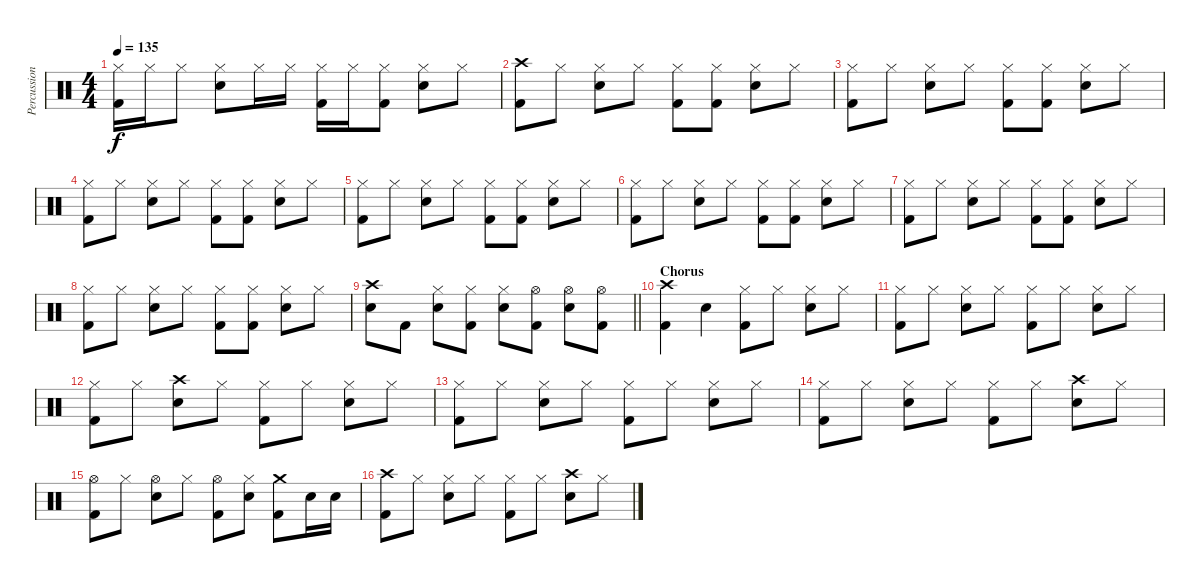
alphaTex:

\track ("Percussion" "Percussion") {instrument percussion}
\staff {score}
\articulation defaults
\ts (4 4)
\tempo 135
\clef neutral
\ks c
("Hi-Hat (closed)" "Kick (hit) 2").16{dy f} "Hi-Hat (closed)".16 "Hi-Hat (closed)".8 ("Hi-Hat (closed)" "Electric Snare (hit)").8 "Hi-Hat (closed)".16 "Hi-Hat (closed)".16 ("Hi-Hat (closed)" "Kick (hit) 2").16 "Hi-Hat (closed)".16 ("Hi-Hat (closed)" "Kick (hit) 2").8 ("Hi-Hat (closed)" "Electric Snare (hit)").8 "Hi-Hat (closed)".8 |
("Crash high (hit)" "Kick (hit) 2").8 "Hi-Hat (closed)".8 ("Hi-Hat (closed)" "Electric Snare (hit)").8 "Hi-Hat (closed)".8 ("Hi-Hat (closed)" "Kick (hit) 2").8 ("Hi-Hat (closed)" "Kick (hit) 2").8 ("Hi-Hat (closed)" "Electric Snare (hit)").8 "Hi-Hat (closed)".8 |
("Hi-Hat (closed)" "Kick (hit) 2").8 "Hi-Hat (closed)".8 ("Hi-Hat (closed)" "Electric Snare (hit)").8 "Hi-Hat (closed)".8 ("Hi-Hat (closed)" "Kick (hit) 2").8 ("Hi-Hat (closed)" "Kick (hit) 2").8 ("Hi-Hat (closed)" "Electric Snare (hit)").8 "Hi-Hat (closed)".8 |
("Hi-Hat (closed)" "Kick (hit) 2").8 "Hi-Hat (closed)".8 ("Hi-Hat (closed)" "Electric Snare (hit)").8 "Hi-Hat (closed)".8 ("Hi-Hat (closed)" "Kick (hit) 2").8 ("Hi-Hat (closed)" "Kick (hit) 2").8 ("Hi-Hat (closed)" "Electric Snare (hit)").8 "Hi-Hat (closed)".8 |
("Hi-Hat (closed)" "Kick (hit) 2").8 "Hi-Hat (closed)".8 ("Hi-Hat (closed)" "Electric Snare (hit)").8 "Hi-Hat (closed)".8 ("Hi-Hat (closed)" "Kick (hit) 2").8 ("Hi-Hat (closed)" "Kick (hit) 2").8 ("Hi-Hat (closed)" "Electric Snare (hit)").8 "Hi-Hat (closed)".8 |
("Hi-Hat (closed)" "Kick (hit) 2").8 "Hi-Hat (closed)".8 ("Hi-Hat (closed)" "Electric Snare (hit)").8 "Hi-Hat (closed)".8 ("Hi-Hat (closed)" "Kick (hit) 2").8 ("Hi-Hat (closed)" "Kick (hit) 2").8 ("Hi-Hat (closed)" "Electric Snare (hit)").8 "Hi-Hat (closed)".8 |
("Hi-Hat (closed)" "Kick (hit) 2").8 "Hi-Hat (closed)".8 ("Hi-Hat (closed)" "Electric Snare (hit)").8 "Hi-Hat (closed)".8 ("Hi-Hat (closed)" "Kick (hit) 2").8 ("Hi-Hat (closed)" "Kick (hit) 2").8 ("Hi-Hat (closed)" "Electric Snare (hit)").8 "Hi-Hat (closed)".8 |
("Hi-Hat (closed)" "Kick (hit) 2").8 "Hi-Hat (closed)".8 ("Hi-Hat (closed)" "Electric Snare (hit)").8 "Hi-Hat (closed)".8 ("Hi-Hat (closed)" "Kick (hit) 2").8 ("Hi-Hat (closed)" "Kick (hit) 2").8 ("Hi-Hat (closed)" "Electric Snare (hit)").8 "Hi-Hat (closed)".8 |
\barLineRight lightlight
("Crash high (hit)" "Electric Snare (hit)").8 "Kick (hit) 2".8 ("Hi-Hat (closed)" "Electric Snare (hit)").8 ("Hi-Hat (closed)" "Kick (hit) 2").8 ("Hi-Hat (closed)" "Electric Snare (hit)").8 ("Hi-Hat (open)" "Kick (hit) 2").8 ("Hi-Hat (open)" "Electric Snare (hit)").8 ("Hi-Hat (open)" "Kick (hit) 2").8 |
\section ("" "Chorus")
("Crash high (hit)" "Kick (hit) 2").4 "Electric Snare (hit)".4 ("Hi-Hat (closed)" "Kick (hit) 2").8 "Hi-Hat (closed)".8 ("Hi-Hat (closed)" "Electric Snare (hit)").8 "Hi-Hat (closed)".8 |
("Hi-Hat (closed)" "Kick (hit) 2").8 "Hi-Hat (closed)".8 ("Hi-Hat (closed)" "Electric Snare (hit)").8 "Hi-Hat (closed)".8 ("Hi-Hat (closed)" "Kick (hit) 2").8 "Hi-Hat (closed)".8 ("Hi-Hat (closed)" "Electric Snare (hit)").8 "Hi-Hat (closed)".8 |
("Hi-Hat (closed)" "Kick (hit) 2").8 "Hi-Hat (closed)".8 ("Crash high (hit)" "Electric Snare (hit)").8 "Hi-Hat (closed)".8 ("Hi-Hat (closed)" "Kick (hit) 2").8 "Hi-Hat (closed)".8 ("Hi-Hat (closed)" "Electric Snare (hit)").8 "Hi-Hat (closed)".8 |
("Hi-Hat (closed)" "Kick (hit) 2").8 "Hi-Hat (closed)".8 ("Hi-Hat (closed)" "Electric Snare (hit)").8 "Hi-Hat (closed)".8 ("Hi-Hat (closed)" "Kick (hit) 2").8 "Hi-Hat (closed)".8 ("Hi-Hat (closed)" "Electric Snare (hit)").8 "Hi-Hat (closed)".8 |
("Hi-Hat (closed)" "Kick (hit) 2").8 "Hi-Hat (closed)".8 ("Hi-Hat (closed)" "Electric Snare (hit)").8 "Hi-Hat (closed)".8 ("Hi-Hat (closed)" "Kick (hit) 2").8 "Hi-Hat (closed)".8 ("Crash high (hit)" "Electric Snare (hit)").8 "Hi-Hat (closed)".8 |
("Hi-Hat (open)" "Kick (hit) 2").8 "Hi-Hat (closed)".8 ("Hi-Hat (open)" "Electric Snare (hit)").8 "Hi-Hat (closed)".8 ("Hi-Hat (open)" "Kick (hit) 2").8 ("Hi-Hat (closed)" "Electric Snare (hit)").8 ("Crash medium (hit)" "Kick (hit) 2").8 "Electric Snare (hit)".16 "Electric Snare (hit)".16 |
("Crash high (hit)" "Kick (hit) 2").8 "Hi-Hat (closed)".8 ("Hi-Hat (closed)" "Electric Snare (hit)").8 "Hi-Hat (closed)".8 ("Hi-Hat (closed)" "Kick (hit) 2").8 "Hi-Hat (closed)".8 ("Crash high (hit)" "Electric Snare (hit)").8 "Hi-Hat (closed)".8
